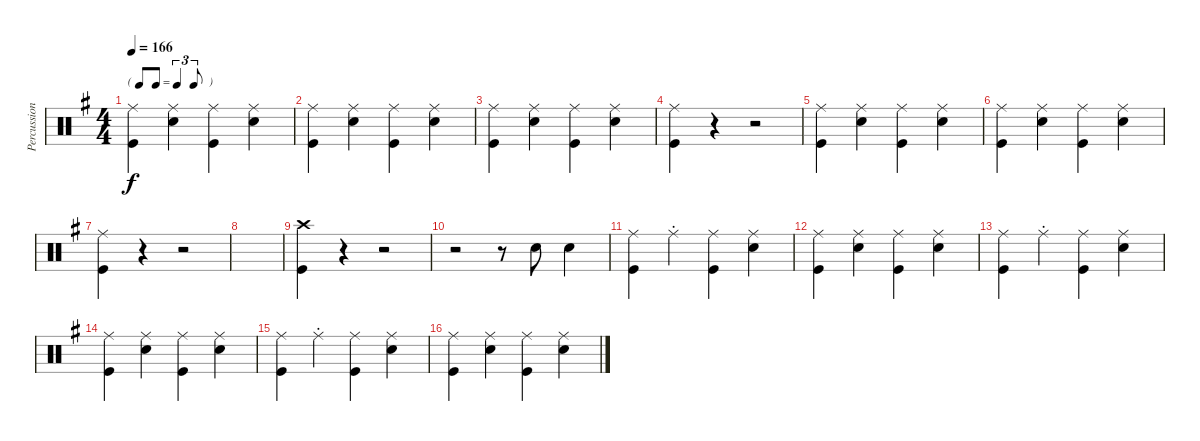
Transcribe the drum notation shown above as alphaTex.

\track ("Percussion" "Percussion") {instrument percussion}
\staff {score}
\articulation defaults
\ts (4 4)
\tf triplet8th
\tempo 166
\clef neutral
\ks g
("Ride (middle)" "Kick (hit)").4{dy f} ("Ride (middle)" "Snare (hit) 2").4 ("Ride (middle)" "Kick (hit)").4 ("Ride (middle)" "Snare (hit) 2").4 |
("Ride (middle)" "Kick (hit)").4 ("Ride (middle)" "Snare (hit) 2").4 ("Ride (middle)" "Kick (hit)").4 ("Ride (middle)" "Snare (hit) 2").4 |
("Ride (middle)" "Kick (hit)").4 ("Ride (middle)" "Snare (hit) 2").4 ("Ride (middle)" "Kick (hit)").4 ("Ride (middle)" "Snare (hit) 2").4 |
("Ride (middle)" "Kick (hit)").4 r.4 r.2 |
("Ride (middle)" "Kick (hit)").4 ("Ride (middle)" "Snare (hit) 2").4 ("Ride (middle)" "Kick (hit)").4 ("Ride (middle)" "Snare (hit) 2").4 |
("Ride (middle)" "Kick (hit)").4 ("Ride (middle)" "Snare (hit) 2").4 ("Ride (middle)" "Kick (hit)").4 ("Ride (middle)" "Snare (hit) 2").4 |
("Ride (middle)" "Kick (hit)").4 r.4 r.2 |
|
("Crash high (hit)" "Kick (hit)").4 r.4 r.2 |
r.2 r.8 "Snare (hit) 2".8 "Snare (hit) 2".4 |
("Ride (middle)" "Kick (hit)").4 "Ride (middle)"{st}.4 ("Ride (middle)" "Kick (hit)").4 ("Ride (middle)" "Snare (hit) 2").4 |
("Ride (middle)" "Kick (hit)").4 ("Ride (middle)" "Snare (hit) 2").4 ("Ride (middle)" "Kick (hit)").4 ("Ride (middle)" "Snare (hit) 2").4 |
("Ride (middle)" "Kick (hit)").4 "Ride (middle)"{st}.4 ("Ride (middle)" "Kick (hit)").4 ("Ride (middle)" "Snare (hit) 2").4 |
("Ride (middle)" "Kick (hit)").4 ("Ride (middle)" "Snare (hit) 2").4 ("Ride (middle)" "Kick (hit)").4 ("Ride (middle)" "Snare (hit) 2").4 |
("Ride (middle)" "Kick (hit)").4 "Ride (middle)"{st}.4 ("Ride (middle)" "Kick (hit)").4 ("Ride (middle)" "Snare (hit) 2").4 |
("Ride (middle)" "Kick (hit)").4 ("Ride (middle)" "Snare (hit) 2").4 ("Ride (middle)" "Kick (hit)").4 ("Ride (middle)" "Snare (hit) 2").4
